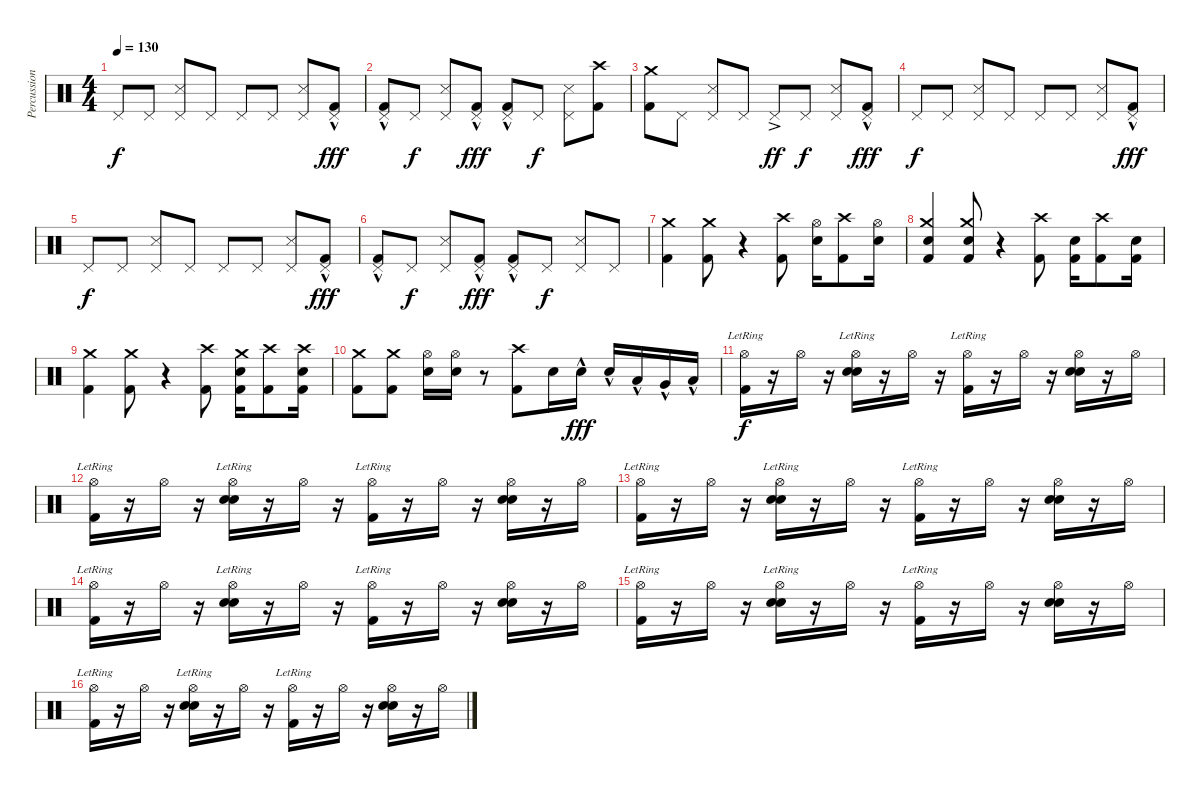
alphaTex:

\track ("Percussion" "Percussion") {instrument percussion}
\staff {score}
\articulation defaults
\ts (4 4)
\tempo 130
\clef neutral
\ks c "Pedal Hi-Hat (hit)".8{dy f} "Pedal Hi-Hat (hit)".8
("Snare (side stick) 3" "Pedal Hi-Hat (hit)").8 "Pedal Hi-Hat (hit)".8 "Pedal Hi-Hat (hit)".8 "Pedal Hi-Hat (hit)".8 ("Snare (side stick) 3" "Pedal Hi-Hat (hit)").8 ("Kick (hit) 2"{hac} "Pedal Hi-Hat (hit)").8{dy fff} |
("Kick (hit) 2"{hac} "Pedal Hi-Hat (hit)").8 "Pedal Hi-Hat (hit)".8{dy f} ("Snare (side stick) 3" "Pedal Hi-Hat (hit)").8 ("Kick (hit) 2"{hac} "Pedal Hi-Hat (hit)").8{dy fff} ("Kick (hit) 2"{hac} "Pedal Hi-Hat (hit)").8 "Pedal Hi-Hat (hit)".8{dy f} ("Snare (side stick) 3" "Pedal Hi-Hat (hit)").8 ("Kick (hit) 2" "Crash high (hit)").8 |
("Kick (hit) 2" "Crash medium (hit)").8 "Pedal Hi-Hat (hit)".8 ("Snare (side stick) 3" "Pedal Hi-Hat (hit)").8 "Pedal Hi-Hat (hit)".8 "Pedal Hi-Hat (hit)"{ac}.8{dy ff} "Pedal Hi-Hat (hit)".8{dy f} ("Snare (side stick) 3" "Pedal Hi-Hat (hit)").8 ("Kick (hit) 2"{hac} "Pedal Hi-Hat (hit)").8{dy fff} |
"Pedal Hi-Hat (hit)".8{dy f} "Pedal Hi-Hat (hit)".8 ("Snare (side stick) 3" "Pedal Hi-Hat (hit)").8 "Pedal Hi-Hat (hit)".8 "Pedal Hi-Hat (hit)".8 "Pedal Hi-Hat (hit)".8 ("Snare (side stick) 3" "Pedal Hi-Hat (hit)").8 ("Kick (hit) 2"{hac} "Pedal Hi-Hat (hit)").8{dy fff} |
"Pedal Hi-Hat (hit)".8{dy f} "Pedal Hi-Hat (hit)".8 ("Snare (side stick) 3" "Pedal Hi-Hat (hit)").8 "Pedal Hi-Hat (hit)".8 "Pedal Hi-Hat (hit)".8 "Pedal Hi-Hat (hit)".8 ("Snare (side stick) 3" "Pedal Hi-Hat (hit)").8 ("Kick (hit) 2"{hac} "Pedal Hi-Hat (hit)").8{dy fff} |
("Kick (hit) 2"{hac} "Pedal Hi-Hat (hit)").8 "Pedal Hi-Hat (hit)".8{dy f} ("Snare (side stick) 3" "Pedal Hi-Hat (hit)").8 ("Kick (hit) 2"{hac} "Pedal Hi-Hat (hit)").8{dy fff} ("Kick (hit) 2"{hac} "Pedal Hi-Hat (hit)").8 "Pedal Hi-Hat (hit)".8{dy f} ("Snare (side stick) 3" "Pedal Hi-Hat (hit)").8 "Pedal Hi-Hat (hit)".8 |
("Crash medium (hit)" "Kick (hit) 2").4 ("Crash medium (hit)" "Kick (hit) 2").8 r.4 ("Crash high (hit)" "Kick (hit) 2").8 ("Electric Snare (hit)" "Hi-Hat (open)").16 ("Crash high (hit)" "Kick (hit) 2").8 ("Electric Snare (hit)" "Hi-Hat (open)").16 |
("Electric Snare (hit)" "Crash medium (hit)" "Kick (hit) 2").4 ("Electric Snare (hit)" "Crash medium (hit)" "Kick (hit) 2").8 r.4 ("Crash high (hit)" "Kick (hit) 2").8 ("Electric Snare (hit)" "Kick (hit) 2").16 ("Crash high (hit)" "Kick (hit) 2").8 ("Electric Snare (hit)" "Kick (hit) 2").16 |
("Crash medium (hit)" "Kick (hit) 2").4 ("Crash medium (hit)" "Kick (hit) 2").8 r.4 ("Crash high (hit)" "Kick (hit) 2").8 ("Electric Snare (hit)" "Crash medium (hit)" "Kick (hit) 2").16 ("Crash high (hit)" "Kick (hit) 2").8 ("Electric Snare (hit)" "Crash high (hit)" "Kick (hit) 2").16 |
("Kick (hit) 2" "Crash medium (hit)").8 ("Kick (hit) 2" "Crash medium (hit)").8 ("Electric Snare (hit)" "Hi-Hat (open)").16 ("Electric Snare (hit)" "Hi-Hat (open)").16 r.8 ("Kick (hit) 2" "Crash high (hit)").8 "Electric Snare (hit)".16 "Electric Snare (hit)"{hac}.16{dy fff} "Electric Snare (hit)"{hac}.16 "Low Tom (hit)"{hac}.16 "Very Low Tom (hit)"{hac}.16 "Low Floor Tom (hit)"{hac}.16 |
("Hi-Hat (open)"{lr} "Kick (hit) 2").16{dy f} r.16 "Hi-Hat (open)".16 r.16 ("Hi-Hat (open)"{lr} "Snare (hit) 2" "Electric Snare (hit)").16 r.16 "Hi-Hat (open)".16 r.16 ("Hi-Hat (open)"{lr} "Kick (hit) 2").16 r.16 "Hi-Hat (open)".16 r.16 ("Hi-Hat (open)" "Snare (hit) 2" "Electric Snare (hit)").16 r.16 "Hi-Hat (open)".16 |
("Hi-Hat (open)"{lr} "Kick (hit) 2").16 r.16 "Hi-Hat (open)".16 r.16 ("Hi-Hat (open)"{lr} "Snare (hit) 2" "Electric Snare (hit)").16 r.16 "Hi-Hat (open)".16 r.16 ("Hi-Hat (open)"{lr} "Kick (hit) 2").16 r.16 "Hi-Hat (open)".16 r.16 ("Hi-Hat (open)" "Snare (hit) 2" "Electric Snare (hit)").16 r.16 "Hi-Hat (open)".16 |
("Hi-Hat (open)"{lr} "Kick (hit) 2").16 r.16 "Hi-Hat (open)".16 r.16 ("Hi-Hat (open)"{lr} "Snare (hit) 2" "Electric Snare (hit)").16 r.16 "Hi-Hat (open)".16 r.16 ("Hi-Hat (open)"{lr} "Kick (hit) 2").16 r.16 "Hi-Hat (open)".16 r.16 ("Hi-Hat (open)" "Snare (hit) 2" "Electric Snare (hit)").16 r.16 "Hi-Hat (open)".16 |
("Hi-Hat (open)"{lr} "Kick (hit) 2").16 r.16 "Hi-Hat (open)".16 r.16 ("Hi-Hat (open)"{lr} "Snare (hit) 2" "Electric Snare (hit)").16 r.16 "Hi-Hat (open)".16 r.16 ("Hi-Hat (open)"{lr} "Kick (hit) 2").16 r.16 "Hi-Hat (open)".16 r.16 ("Hi-Hat (open)" "Snare (hit) 2" "Electric Snare (hit)").16 r.16 "Hi-Hat (open)".16 |
("Hi-Hat (open)"{lr} "Kick (hit) 2").16 r.16 "Hi-Hat (open)".16 r.16 ("Hi-Hat (open)"{lr} "Snare (hit) 2" "Electric Snare (hit)").16 r.16 "Hi-Hat (open)".16 r.16 ("Hi-Hat (open)"{lr} "Kick (hit) 2").16 r.16 "Hi-Hat (open)".16 r.16 ("Hi-Hat (open)" "Snare (hit) 2" "Electric Snare (hit)").16 r.16 "Hi-Hat (open)".16 |
("Hi-Hat (open)"{lr} "Kick (hit) 2").16 r.16 "Hi-Hat (open)".16 r.16 ("Hi-Hat (open)"{lr} "Snare (hit) 2" "Electric Snare (hit)").16 r.16 "Hi-Hat (open)".16 r.16 ("Hi-Hat (open)"{lr} "Kick (hit) 2").16 r.16 "Hi-Hat (open)".16 r.16 ("Hi-Hat (open)" "Snare (hit) 2" "Electric Snare (hit)").16 r.16 "Hi-Hat (open)".16
